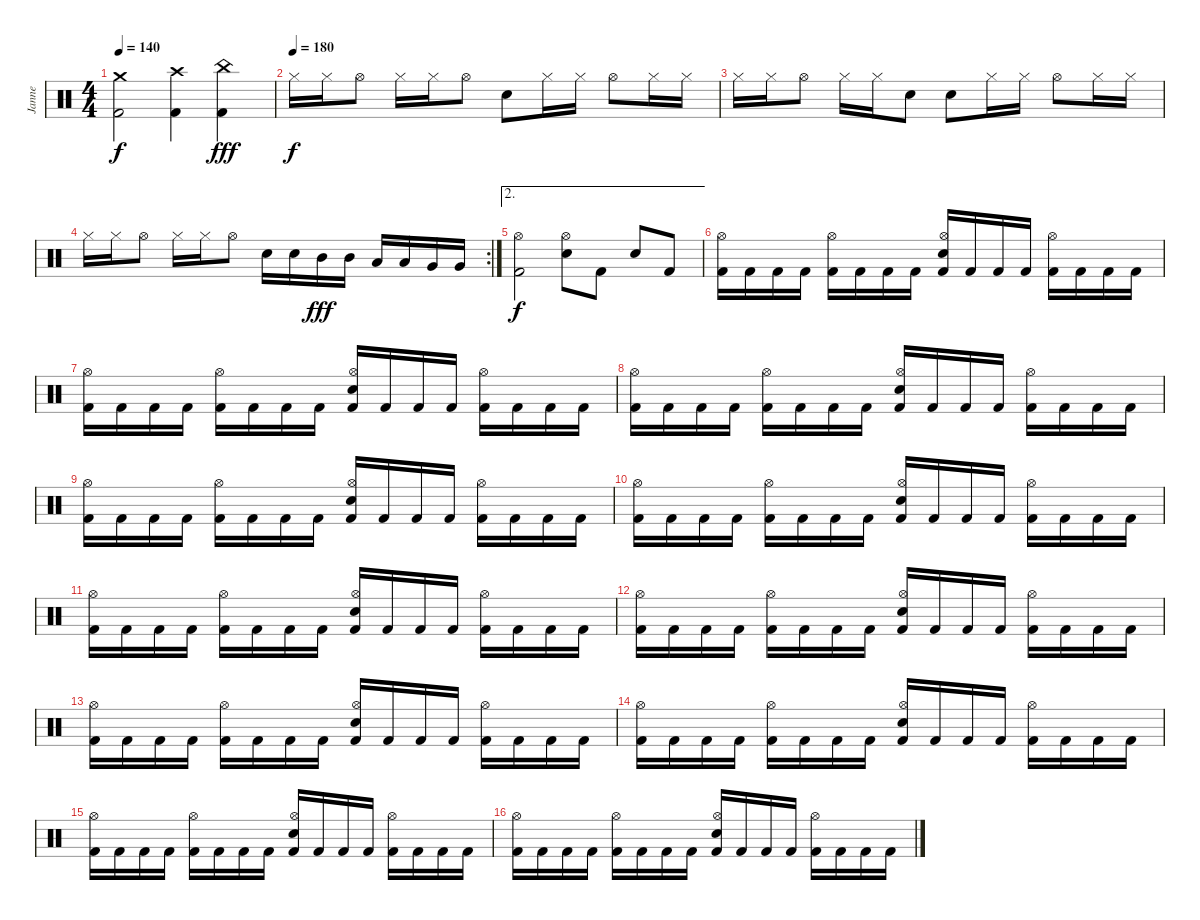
\track ("Janne" "Janne") {instrument percussion}
\staff {score}
\articulation defaults
\ts (4 4)
\tempo 140
\clef neutral
\ks c
("Crash medium (hit)" "Kick (hit) 2").2{dy f} ("Crash high (hit)" "Kick (hit) 2").4 ("China (hit)" "Kick (hit) 2").4{dy fff} |
\tempo (180)
"Hi-Hat (closed)".16{dy f} "Hi-Hat (closed)".16 "Hi-Hat (open)".8 "Hi-Hat (closed)".16 "Hi-Hat (closed)".16 "Hi-Hat (open)".8 "Electric Snare (hit)".8 "Hi-Hat (closed)".16 "Hi-Hat (closed)".16 "Hi-Hat (open)".8 "Hi-Hat (closed)".16 "Hi-Hat (closed)".16 |
"Hi-Hat (closed)".16 "Hi-Hat (closed)".16 "Hi-Hat (open)".8 "Hi-Hat (closed)".16 "Hi-Hat (closed)".16 "Electric Snare (hit)".8 "Electric Snare (hit)".8 "Hi-Hat (closed)".16 "Hi-Hat (closed)".16 "Hi-Hat (open)".8 "Hi-Hat (closed)".16 "Hi-Hat (closed)".16 |
\rc 2 "Hi-Hat (closed)".16 "Hi-Hat (closed)".16 "Hi-Hat (open)".8 "Hi-Hat (closed)".16 "Hi-Hat (closed)".16 "Hi-Hat (open)".8 "Electric Snare (hit)".16 "Electric Snare (hit)".16 "Mid Tom (hit)".16{dy fff} "Mid Tom (hit)".16 "Low Tom (hit)".16 "Low Tom (hit)".16 "Very Low Tom (hit)".16 "Very Low Tom (hit)".16
|
\ae 2
("Hi-Hat (open)" "Kick (hit) 2").2{dy f} ("Hi-Hat (open)" "Electric Snare (hit)").8 "Kick (hit) 2".8 "Electric Snare (hit)".8 "Kick (hit) 2".8 |
("Hi-Hat (open)" "Kick (hit) 2").16 "Kick (hit) 2".16 "Kick (hit) 2".16 "Kick (hit) 2".16 ("Hi-Hat (open)" "Kick (hit) 2").16 "Kick (hit) 2".16 "Kick (hit) 2".16 "Kick (hit) 2".16 ("Hi-Hat (open)" "Electric Snare (hit)" "Kick (hit) 2").16 "Kick (hit) 2".16 "Kick (hit) 2".16 "Kick (hit) 2".16 ("Hi-Hat (open)" "Kick (hit) 2").16 "Kick (hit) 2".16 "Kick (hit) 2".16 "Kick (hit) 2".16 |
("Hi-Hat (open)" "Kick (hit) 2").16 "Kick (hit) 2".16 "Kick (hit) 2".16 "Kick (hit) 2".16 ("Hi-Hat (open)" "Kick (hit) 2").16 "Kick (hit) 2".16 "Kick (hit) 2".16 "Kick (hit) 2".16 ("Hi-Hat (open)" "Electric Snare (hit)" "Kick (hit) 2").16 "Kick (hit) 2".16 "Kick (hit) 2".16 "Kick (hit) 2".16 ("Hi-Hat (open)" "Kick (hit) 2").16 "Kick (hit) 2".16 "Kick (hit) 2".16 "Kick (hit) 2".16 |
("Hi-Hat (open)" "Kick (hit) 2").16 "Kick (hit) 2".16 "Kick (hit) 2".16 "Kick (hit) 2".16 ("Hi-Hat (open)" "Kick (hit) 2").16 "Kick (hit) 2".16 "Kick (hit) 2".16 "Kick (hit) 2".16 ("Hi-Hat (open)" "Electric Snare (hit)" "Kick (hit) 2").16 "Kick (hit) 2".16 "Kick (hit) 2".16 "Kick (hit) 2".16 ("Hi-Hat (open)" "Kick (hit) 2").16 "Kick (hit) 2".16 "Kick (hit) 2".16 "Kick (hit) 2".16 |
("Hi-Hat (open)" "Kick (hit) 2").16 "Kick (hit) 2".16 "Kick (hit) 2".16 "Kick (hit) 2".16 ("Hi-Hat (open)" "Kick (hit) 2").16 "Kick (hit) 2".16 "Kick (hit) 2".16 "Kick (hit) 2".16 ("Hi-Hat (open)" "Electric Snare (hit)" "Kick (hit) 2").16 "Kick (hit) 2".16 "Kick (hit) 2".16 "Kick (hit) 2".16 ("Hi-Hat (open)" "Kick (hit) 2").16 "Kick (hit) 2".16 "Kick (hit) 2".16 "Kick (hit) 2".16 |
("Hi-Hat (open)" "Kick (hit) 2").16 "Kick (hit) 2".16 "Kick (hit) 2".16 "Kick (hit) 2".16 ("Hi-Hat (open)" "Kick (hit) 2").16 "Kick (hit) 2".16 "Kick (hit) 2".16 "Kick (hit) 2".16 ("Hi-Hat (open)" "Electric Snare (hit)" "Kick (hit) 2").16 "Kick (hit) 2".16 "Kick (hit) 2".16 "Kick (hit) 2".16 ("Hi-Hat (open)" "Kick (hit) 2").16 "Kick (hit) 2".16 "Kick (hit) 2".16 "Kick (hit) 2".16 |
("Hi-Hat (open)" "Kick (hit) 2").16 "Kick (hit) 2".16 "Kick (hit) 2".16 "Kick (hit) 2".16 ("Hi-Hat (open)" "Kick (hit) 2").16 "Kick (hit) 2".16 "Kick (hit) 2".16 "Kick (hit) 2".16 ("Hi-Hat (open)" "Electric Snare (hit)" "Kick (hit) 2").16 "Kick (hit) 2".16 "Kick (hit) 2".16 "Kick (hit) 2".16 ("Hi-Hat (open)" "Kick (hit) 2").16 "Kick (hit) 2".16 "Kick (hit) 2".16 "Kick (hit) 2".16 |
("Hi-Hat (open)" "Kick (hit) 2").16 "Kick (hit) 2".16 "Kick (hit) 2".16 "Kick (hit) 2".16 ("Hi-Hat (open)" "Kick (hit) 2").16 "Kick (hit) 2".16 "Kick (hit) 2".16 "Kick (hit) 2".16 ("Hi-Hat (open)" "Electric Snare (hit)" "Kick (hit) 2").16 "Kick (hit) 2".16 "Kick (hit) 2".16 "Kick (hit) 2".16 ("Hi-Hat (open)" "Kick (hit) 2").16 "Kick (hit) 2".16 "Kick (hit) 2".16 "Kick (hit) 2".16 |
("Hi-Hat (open)" "Kick (hit) 2").16 "Kick (hit) 2".16 "Kick (hit) 2".16 "Kick (hit) 2".16 ("Hi-Hat (open)" "Kick (hit) 2").16 "Kick (hit) 2".16 "Kick (hit) 2".16 "Kick (hit) 2".16 ("Hi-Hat (open)" "Electric Snare (hit)" "Kick (hit) 2").16 "Kick (hit) 2".16 "Kick (hit) 2".16 "Kick (hit) 2".16 ("Hi-Hat (open)" "Kick (hit) 2").16 "Kick (hit) 2".16 "Kick (hit) 2".16 "Kick (hit) 2".16 |
("Hi-Hat (open)" "Kick (hit) 2").16 "Kick (hit) 2".16 "Kick (hit) 2".16 "Kick (hit) 2".16 ("Hi-Hat (open)" "Kick (hit) 2").16 "Kick (hit) 2".16 "Kick (hit) 2".16 "Kick (hit) 2".16 ("Hi-Hat (open)" "Electric Snare (hit)" "Kick (hit) 2").16 "Kick (hit) 2".16 "Kick (hit) 2".16 "Kick (hit) 2".16 ("Hi-Hat (open)" "Kick (hit) 2").16 "Kick (hit) 2".16 "Kick (hit) 2".16 "Kick (hit) 2".16 |
("Hi-Hat (open)" "Kick (hit) 2").16 "Kick (hit) 2".16 "Kick (hit) 2".16 "Kick (hit) 2".16 ("Hi-Hat (open)" "Kick (hit) 2").16 "Kick (hit) 2".16 "Kick (hit) 2".16 "Kick (hit) 2".16 ("Hi-Hat (open)" "Electric Snare (hit)" "Kick (hit) 2").16 "Kick (hit) 2".16 "Kick (hit) 2".16 "Kick (hit) 2".16 ("Hi-Hat (open)" "Kick (hit) 2").16 "Kick (hit) 2".16 "Kick (hit) 2".16 "Kick (hit) 2".16 |
("Hi-Hat (open)" "Kick (hit) 2").16 "Kick (hit) 2".16 "Kick (hit) 2".16 "Kick (hit) 2".16 ("Hi-Hat (open)" "Kick (hit) 2").16 "Kick (hit) 2".16 "Kick (hit) 2".16 "Kick (hit) 2".16 ("Hi-Hat (open)" "Electric Snare (hit)" "Kick (hit) 2").16 "Kick (hit) 2".16 "Kick (hit) 2".16 "Kick (hit) 2".16 ("Hi-Hat (open)" "Kick (hit) 2").16 "Kick (hit) 2".16 "Kick (hit) 2".16 "Kick (hit) 2".16
